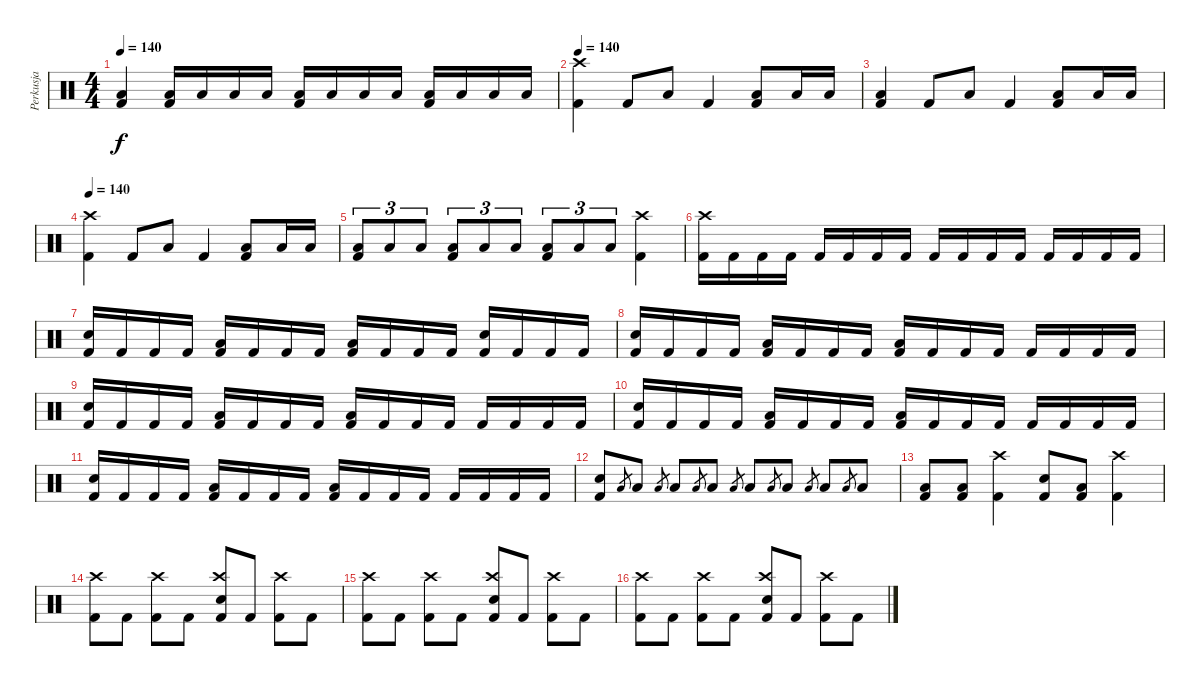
\track ("Perkusja" "Perkusja") {instrument percussion}
\staff {score}
\articulation defaults
\ts (4 4)
\tempo 140
\clef neutral
\ks c
("Low Floor Tom (hit)" "Kick (hit) 2").4{dy f} ("Low Floor Tom (hit)" "Kick (hit) 2").16 "Low Floor Tom (hit)".16 "Low Floor Tom (hit)".16 "Low Floor Tom (hit)".16 ("Low Floor Tom (hit)" "Kick (hit) 2").16 "Low Floor Tom (hit)".16 "Low Floor Tom (hit)".16 "Low Floor Tom (hit)".16 ("Low Floor Tom (hit)" "Kick (hit) 2").16 "Low Floor Tom (hit)".16 "Low Floor Tom (hit)".16 "Low Floor Tom (hit)".16 |
\tempo 140
("Crash high (hit)" "Kick (hit) 2").4 "Kick (hit) 2".8 "Low Floor Tom (hit)".8 "Kick (hit) 2".4 ("Low Floor Tom (hit)" "Kick (hit) 2").8 "Low Floor Tom (hit)".16 "Low Floor Tom (hit)".16 |
("Low Floor Tom (hit)" "Kick (hit) 2").4 "Kick (hit) 2".8 "Low Floor Tom (hit)".8 "Kick (hit) 2".4 ("Low Floor Tom (hit)" "Kick (hit) 2").8 "Low Floor Tom (hit)".16 "Low Floor Tom (hit)".16 |
\tempo 140
("Crash high (hit)" "Kick (hit) 2").4 "Kick (hit) 2".8 "Low Floor Tom (hit)".8 "Kick (hit) 2".4 ("Low Floor Tom (hit)" "Kick (hit) 2").8 "Low Floor Tom (hit)".16 "Low Floor Tom (hit)".16 |
("Low Floor Tom (hit)" "Kick (hit) 2").8{tu (3 2)} "Low Floor Tom (hit)".8{tu (3 2)} "Low Floor Tom (hit)".8{tu (3 2)} ("Low Floor Tom (hit)" "Kick (hit) 2").8{tu (3 2)} "Low Floor Tom (hit)".8{tu (3 2)} "Low Floor Tom (hit)".8{tu (3 2)} ("Low Floor Tom (hit)" "Kick (hit) 2").8{tu (3 2)} "Low Floor Tom (hit)".8{tu (3 2)} "Low Floor Tom (hit)".8{tu (3 2)} ("Crash high (hit)" "Kick (hit) 2").4 |
("Crash high (hit)" "Kick (hit) 2").16 "Kick (hit) 2".16 "Kick (hit) 2".16 "Kick (hit) 2".16 "Kick (hit) 2".16 "Kick (hit) 2".16 "Kick (hit) 2".16 "Kick (hit) 2".16 "Kick (hit) 2".16 "Kick (hit) 2".16 "Kick (hit) 2".16 "Kick (hit) 2".16 "Kick (hit) 2".16 "Kick (hit) 2".16 "Kick (hit) 2".16 "Kick (hit) 2".16 |
("Electric Snare (hit)" "Kick (hit) 2").16 "Kick (hit) 2".16 "Kick (hit) 2".16 "Kick (hit) 2".16 ("Low Floor Tom (hit)" "Kick (hit) 2").16 "Kick (hit) 2".16 "Kick (hit) 2".16 "Kick (hit) 2".16 ("Low Floor Tom (hit)" "Kick (hit) 2").16 "Kick (hit) 2".16 "Kick (hit) 2".16 "Kick (hit) 2".16 ("Electric Snare (hit)" "Kick (hit) 2").16 "Kick (hit) 2".16 "Kick (hit) 2".16 "Kick (hit) 2".16 |
("Electric Snare (hit)" "Kick (hit) 2").16 "Kick (hit) 2".16 "Kick (hit) 2".16 "Kick (hit) 2".16 ("Low Floor Tom (hit)" "Kick (hit) 2").16 "Kick (hit) 2".16 "Kick (hit) 2".16 "Kick (hit) 2".16 ("Low Floor Tom (hit)" "Kick (hit) 2").16 "Kick (hit) 2".16 "Kick (hit) 2".16 "Kick (hit) 2".16 "Kick (hit) 2".16 "Kick (hit) 2".16 "Kick (hit) 2".16 "Kick (hit) 2".16 |
("Electric Snare (hit)" "Kick (hit) 2").16 "Kick (hit) 2".16 "Kick (hit) 2".16 "Kick (hit) 2".16 ("Low Floor Tom (hit)" "Kick (hit) 2").16 "Kick (hit) 2".16 "Kick (hit) 2".16 "Kick (hit) 2".16 ("Low Floor Tom (hit)" "Kick (hit) 2").16 "Kick (hit) 2".16 "Kick (hit) 2".16 "Kick (hit) 2".16 "Kick (hit) 2".16 "Kick (hit) 2".16 "Kick (hit) 2".16 "Kick (hit) 2".16 |
("Electric Snare (hit)" "Kick (hit) 2").16 "Kick (hit) 2".16 "Kick (hit) 2".16 "Kick (hit) 2".16 ("Low Floor Tom (hit)" "Kick (hit) 2").16 "Kick (hit) 2".16 "Kick (hit) 2".16 "Kick (hit) 2".16 ("Low Floor Tom (hit)" "Kick (hit) 2").16 "Kick (hit) 2".16 "Kick (hit) 2".16 "Kick (hit) 2".16 "Kick (hit) 2".16 "Kick (hit) 2".16 "Kick (hit) 2".16 "Kick (hit) 2".16 |
("Electric Snare (hit)" "Kick (hit) 2").16 "Kick (hit) 2".16 "Kick (hit) 2".16 "Kick (hit) 2".16 ("Low Floor Tom (hit)" "Kick (hit) 2").16 "Kick (hit) 2".16 "Kick (hit) 2".16 "Kick (hit) 2".16 ("Low Floor Tom (hit)" "Kick (hit) 2").16 "Kick (hit) 2".16 "Kick (hit) 2".16 "Kick (hit) 2".16 "Kick (hit) 2".16 "Kick (hit) 2".16 "Kick (hit) 2".16 "Kick (hit) 2".16 |
("Electric Snare (hit)" "Kick (hit) 2").8 "Low Floor Tom (hit)".8{gr} "Low Floor Tom (hit)".8 "Low Floor Tom (hit)".8{gr} "Low Floor Tom (hit)".8 "Low Floor Tom (hit)".8{gr} "Low Floor Tom (hit)".8 "Low Floor Tom (hit)".8{gr} "Low Floor Tom (hit)".8 "Low Floor Tom (hit)".8{gr} "Low Floor Tom (hit)".8 "Low Floor Tom (hit)".8{gr} "Low Floor Tom (hit)".8 "Low Floor Tom (hit)".8{gr} "Low Floor Tom (hit)".8 |
("Low Floor Tom (hit)" "Kick (hit) 2").8 ("Low Floor Tom (hit)" "Kick (hit) 2").8 ("Crash high (hit)" "Kick (hit) 2").4 ("Electric Snare (hit)" "Kick (hit) 2").8 ("Low Floor Tom (hit)" "Kick (hit) 2").8 ("Crash high (hit)" "Kick (hit) 2").4 |
("Crash high (hit)" "Kick (hit) 2").8 "Kick (hit) 2".8 ("Crash high (hit)" "Kick (hit) 2").8 "Kick (hit) 2".8 ("Crash high (hit)" "Electric Snare (hit)" "Kick (hit) 2").8 "Kick (hit) 2".8 ("Crash high (hit)" "Kick (hit) 2").8 "Kick (hit) 2".8 |
("Crash high (hit)" "Kick (hit) 2").8 "Kick (hit) 2".8 ("Crash high (hit)" "Kick (hit) 2").8 "Kick (hit) 2".8 ("Crash high (hit)" "Electric Snare (hit)" "Kick (hit) 2").8 "Kick (hit) 2".8 ("Crash high (hit)" "Kick (hit) 2").8 "Kick (hit) 2".8 |
("Crash high (hit)" "Kick (hit) 2").8 "Kick (hit) 2".8 ("Crash high (hit)" "Kick (hit) 2").8 "Kick (hit) 2".8 ("Crash high (hit)" "Electric Snare (hit)" "Kick (hit) 2").8 "Kick (hit) 2".8 ("Crash high (hit)" "Kick (hit) 2").8 "Kick (hit) 2".8
